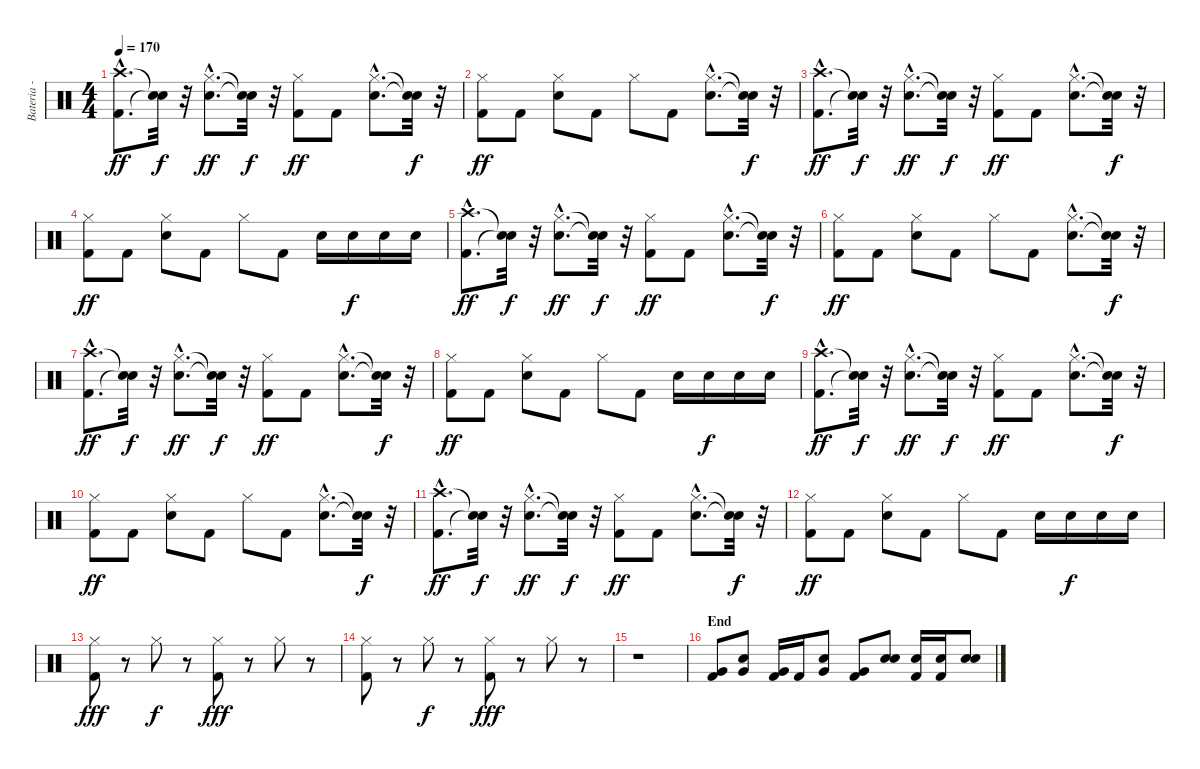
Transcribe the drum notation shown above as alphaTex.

\track ("Bateria - Larzon" "Bateria - ") {instrument percussion}
\staff {score}
\articulation defaults
\ts (4 4)
\tempo 170
\clef neutral
\ks c
("Kick (hit) 2"{hac} "Crash high (hit)"{hac}).8{d dy ff} ("Snare (hit)"{t} "Snare (hit)"{t}).32{dy f} r.32 ("Electric Snare (hit)"{hac} "Hi-Hat (closed)"{hac}).8{d dy ff} ("Snare (hit)"{t} "Snare (hit)"{t}).32{dy f} r.32 ("Kick (hit) 2" "Hi-Hat (closed)").8{dy ff} "Kick (hit) 2".8 ("Electric Snare (hit)"{hac} "Hi-Hat (closed)"{hac}).8{d} ("Snare (hit)"{t} "Snare (hit)"{t}).32{dy f} r.32 |
("Kick (hit) 2" "Hi-Hat (closed)").8{dy ff} "Kick (hit) 2".8 ("Electric Snare (hit)" "Hi-Hat (closed)").8 "Kick (hit) 2".8 "Hi-Hat (closed)".8 "Kick (hit) 2".8 ("Electric Snare (hit)"{hac} "Hi-Hat (closed)"{hac}).8{d} ("Snare (hit)"{t} "Snare (hit)"{t}).32{dy f} r.32 |
("Kick (hit) 2"{hac} "Crash high (hit)"{hac}).8{d dy ff} ("Snare (hit)"{t} "Snare (hit)"{t}).32{dy f} r.32 ("Electric Snare (hit)"{hac} "Hi-Hat (closed)"{hac}).8{d dy ff} ("Snare (hit)"{t} "Snare (hit)"{t}).32{dy f} r.32 ("Kick (hit) 2" "Hi-Hat (closed)").8{dy ff} "Kick (hit) 2".8 ("Electric Snare (hit)"{hac} "Hi-Hat (closed)"{hac}).8{d} ("Snare (hit)"{t} "Snare (hit)"{t}).32{dy f} r.32 |
("Kick (hit) 2" "Hi-Hat (closed)").8{dy ff} "Kick (hit) 2".8 ("Electric Snare (hit)" "Hi-Hat (closed)").8 "Kick (hit) 2".8 "Hi-Hat (closed)".8 "Kick (hit) 2".8 "Snare (hit) 2".16 "Snare (hit) 2".16{dy f} "Snare (hit) 2".16 "Snare (hit) 2".16 |
("Kick (hit) 2"{hac} "Crash high (hit)"{hac}).8{d dy ff} ("Snare (hit)"{t} "Snare (hit)"{t}).32{dy f} r.32 ("Electric Snare (hit)"{hac} "Hi-Hat (closed)"{hac}).8{d dy ff} ("Snare (hit)"{t} "Snare (hit)"{t}).32{dy f} r.32 ("Kick (hit) 2" "Hi-Hat (closed)").8{dy ff} "Kick (hit) 2".8 ("Electric Snare (hit)"{hac} "Hi-Hat (closed)"{hac}).8{d} ("Snare (hit)"{t} "Snare (hit)"{t}).32{dy f} r.32 |
("Kick (hit) 2" "Hi-Hat (closed)").8{dy ff} "Kick (hit) 2".8 ("Electric Snare (hit)" "Hi-Hat (closed)").8 "Kick (hit) 2".8 "Hi-Hat (closed)".8 "Kick (hit) 2".8 ("Electric Snare (hit)"{hac} "Hi-Hat (closed)"{hac}).8{d} ("Snare (hit)"{t} "Snare (hit)"{t}).32{dy f} r.32 |
("Kick (hit) 2"{hac} "Crash high (hit)"{hac}).8{d dy ff} ("Snare (hit)"{t} "Snare (hit)"{t}).32{dy f} r.32 ("Electric Snare (hit)"{hac} "Hi-Hat (closed)"{hac}).8{d dy ff} ("Snare (hit)"{t} "Snare (hit)"{t}).32{dy f} r.32 ("Kick (hit) 2" "Hi-Hat (closed)").8{dy ff} "Kick (hit) 2".8 ("Electric Snare (hit)"{hac} "Hi-Hat (closed)"{hac}).8{d} ("Snare (hit)"{t} "Snare (hit)"{t}).32{dy f} r.32 |
("Kick (hit) 2" "Hi-Hat (closed)").8{dy ff} "Kick (hit) 2".8 ("Electric Snare (hit)" "Hi-Hat (closed)").8 "Kick (hit) 2".8 "Hi-Hat (closed)".8 "Kick (hit) 2".8 "Electric Snare (hit)".16 "Electric Snare (hit)".16{dy f} "Electric Snare (hit)".16 "Electric Snare (hit)".16 |
("Kick (hit) 2"{hac} "Crash high (hit)"{hac}).8{d dy ff} ("Snare (hit)"{t} "Snare (hit)"{t}).32{dy f} r.32 ("Electric Snare (hit)"{hac} "Hi-Hat (closed)"{hac}).8{d dy ff} ("Snare (hit)"{t} "Snare (hit)"{t}).32{dy f} r.32 ("Kick (hit) 2" "Hi-Hat (closed)").8{dy ff} "Kick (hit) 2".8 ("Electric Snare (hit)"{hac} "Hi-Hat (closed)"{hac}).8{d} ("Snare (hit)"{t} "Snare (hit)"{t}).32{dy f} r.32 |
("Kick (hit) 2" "Hi-Hat (closed)").8{dy ff} "Kick (hit) 2".8 ("Electric Snare (hit)" "Hi-Hat (closed)").8 "Kick (hit) 2".8 "Hi-Hat (closed)".8 "Kick (hit) 2".8 ("Electric Snare (hit)"{hac} "Hi-Hat (closed)"{hac}).8{d} ("Snare (hit)"{t} "Snare (hit)"{t}).32{dy f} r.32 |
("Kick (hit) 2"{hac} "Crash high (hit)"{hac}).8{d dy ff} ("Snare (hit)"{t} "Snare (hit)"{t}).32{dy f} r.32 ("Electric Snare (hit)"{hac} "Hi-Hat (closed)"{hac}).8{d dy ff} ("Snare (hit)"{t} "Snare (hit)"{t}).32{dy f} r.32 ("Kick (hit) 2" "Hi-Hat (closed)").8{dy ff} "Kick (hit) 2".8 ("Electric Snare (hit)"{hac} "Hi-Hat (closed)"{hac}).8{d} ("Snare (hit)"{t} "Snare (hit)"{t}).32{dy f} r.32 |
("Kick (hit) 2" "Hi-Hat (closed)").8{dy ff} "Kick (hit) 2".8 ("Electric Snare (hit)" "Hi-Hat (closed)").8 "Kick (hit) 2".8 "Hi-Hat (closed)".8 "Kick (hit) 2".8 "Snare (hit) 2".16 "Snare (hit) 2".16{dy f} "Snare (hit) 2".16 "Snare (hit) 2".16 |
("Kick (hit) 2" "Hi-Hat (closed)").8{dy fff} r.8 "Hi-Hat (closed)".8{dy f} r.8 ("Kick (hit) 2" "Hi-Hat (closed)").8{dy fff} r.8 "Hi-Hat (closed)".8 r.8 |
("Kick (hit) 2" "Hi-Hat (closed)").8 r.8 "Hi-Hat (closed)".8{dy f} r.8 ("Kick (hit) 2" "Hi-Hat (closed)").8{dy fff} r.8 "Hi-Hat (closed)".8 r.8 |
r.1 |
\section ("" "End")
("Kick (hit) 2" "Very Low Tom (hit)").8 ("Electric Snare (hit)" "Very Low Tom (hit)").8 ("Kick (hit) 2" "Very Low Tom (hit)").16 "Kick (hit) 2".16 ("Electric Snare (hit)" "Very Low Tom (hit)").8 ("Kick (hit) 2" "Very Low Tom (hit)").8 ("Electric Snare (hit)" "Electric Snare (hit)").8 ("Kick (hit) 2" "Electric Snare (hit)").16 ("Kick (hit) 2" "Electric Snare (hit)").16 ("Electric Snare (hit)" "Electric Snare (hit)").8
